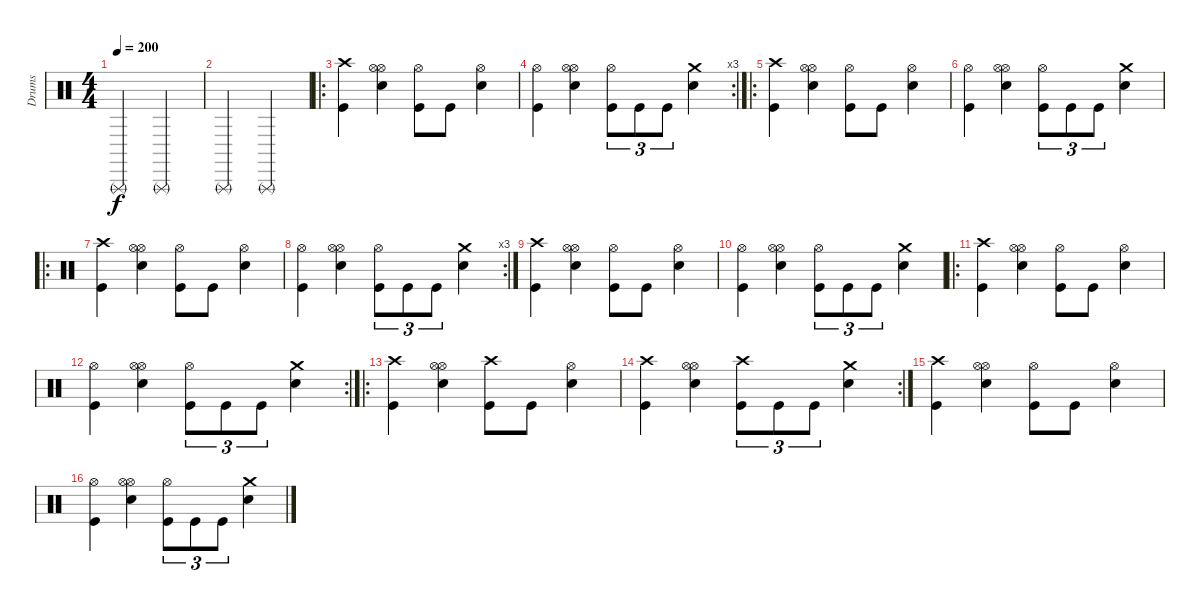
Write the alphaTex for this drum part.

\track ("Drums" "Drums") {instrument percussion}
\staff {score}
\articulation defaults
\ts (4 4)
\tempo 200
\clef neutral
\ks c "Triangle (rnute)".2{dy f} "Triangle (rnute)".2
|
"Triangle (rnute)".2 "Triangle (rnute)".2 |
\ro
("Crash high (hit)" "Kick (hit)").4 ("Hi-Hat (open)" "Snare (hit) 2" "Hi-Hat (open)").4 ("Hi-Hat (open)" "Kick (hit)").8 "Kick (hit)".8 ("Hi-Hat (open)" "Snare (hit) 2").4 |
\rc 3
("Hi-Hat (open)" "Kick (hit)").4 ("Hi-Hat (open)" "Snare (hit) 2" "Hi-Hat (open)").4 ("Hi-Hat (open)" "Kick (hit)").8{tu (3 2)} "Kick (hit)".8{tu (3 2)} "Kick (hit)".8{tu (3 2)} ("Crash medium (hit)" "Snare (hit) 2").4 |
\ro
("Crash high (hit)" "Kick (hit)").4 ("Hi-Hat (open)" "Snare (hit) 2" "Hi-Hat (open)").4 ("Hi-Hat (open)" "Kick (hit)").8 "Kick (hit)".8 ("Hi-Hat (open)" "Snare (hit) 2").4 |
("Hi-Hat (open)" "Kick (hit)").4 ("Hi-Hat (open)" "Snare (hit) 2" "Hi-Hat (open)").4 ("Hi-Hat (open)" "Kick (hit)").8{tu (3 2)} "Kick (hit)".8{tu (3 2)} "Kick (hit)".8{tu (3 2)} ("Crash medium (hit)" "Snare (hit) 2").4 |
\ro
("Crash high (hit)" "Kick (hit)").4 ("Hi-Hat (open)" "Snare (hit) 2" "Hi-Hat (open)").4 ("Hi-Hat (open)" "Kick (hit)").8 "Kick (hit)".8 ("Hi-Hat (open)" "Snare (hit) 2").4 |
\rc 3
("Hi-Hat (open)" "Kick (hit)").4 ("Hi-Hat (open)" "Snare (hit) 2" "Hi-Hat (open)").4 ("Hi-Hat (open)" "Kick (hit)").8{tu (3 2)} "Kick (hit)".8{tu (3 2)} "Kick (hit)".8{tu (3 2)} ("Crash medium (hit)" "Snare (hit) 2").4 |
("Crash high (hit)" "Kick (hit)").4 ("Hi-Hat (open)" "Snare (hit) 2" "Hi-Hat (open)").4 ("Hi-Hat (open)" "Kick (hit)").8 "Kick (hit)".8 ("Hi-Hat (open)" "Snare (hit) 2").4 |
("Hi-Hat (open)" "Kick (hit)").4 ("Hi-Hat (open)" "Snare (hit) 2" "Hi-Hat (open)").4 ("Hi-Hat (open)" "Kick (hit)").8{tu (3 2)} "Kick (hit)".8{tu (3 2)} "Kick (hit)".8{tu (3 2)} ("Crash medium (hit)" "Snare (hit) 2").4 |
\ro
("Crash high (hit)" "Kick (hit)").4 ("Hi-Hat (open)" "Snare (hit) 2" "Hi-Hat (open)").4 ("Hi-Hat (open)" "Kick (hit)").8 "Kick (hit)".8 ("Hi-Hat (open)" "Snare (hit) 2").4 |
\rc 2
("Hi-Hat (open)" "Kick (hit)").4 ("Hi-Hat (open)" "Snare (hit) 2" "Hi-Hat (open)").4 ("Hi-Hat (open)" "Kick (hit)").8{tu (3 2)} "Kick (hit)".8{tu (3 2)} "Kick (hit)".8{tu (3 2)} ("Crash medium (hit)" "Snare (hit) 2").4 |
\ro
("Crash high (hit)" "Kick (hit)").4 ("Hi-Hat (open)" "Snare (hit) 2" "Hi-Hat (open)").4 ("Crash high (hit)" "Kick (hit)").8 "Kick (hit)".8 ("Hi-Hat (open)" "Snare (hit) 2").4 |
\rc 2
("Crash high (hit)" "Kick (hit)").4 ("Hi-Hat (open)" "Snare (hit) 2" "Hi-Hat (open)").4 ("Crash high (hit)" "Kick (hit)").8{tu (3 2)} "Kick (hit)".8{tu (3 2)} "Kick (hit)".8{tu (3 2)} ("Crash medium (hit)" "Snare (hit) 2").4 |
("Crash high (hit)" "Kick (hit)").4 ("Hi-Hat (open)" "Snare (hit) 2" "Hi-Hat (open)").4 ("Hi-Hat (open)" "Kick (hit)").8 "Kick (hit)".8 ("Hi-Hat (open)" "Snare (hit) 2").4 |
("Hi-Hat (open)" "Kick (hit)").4 ("Hi-Hat (open)" "Snare (hit) 2" "Hi-Hat (open)").4 ("Hi-Hat (open)" "Kick (hit)").8{tu (3 2)} "Kick (hit)".8{tu (3 2)} "Kick (hit)".8{tu (3 2)} ("Crash medium (hit)" "Snare (hit) 2").4
